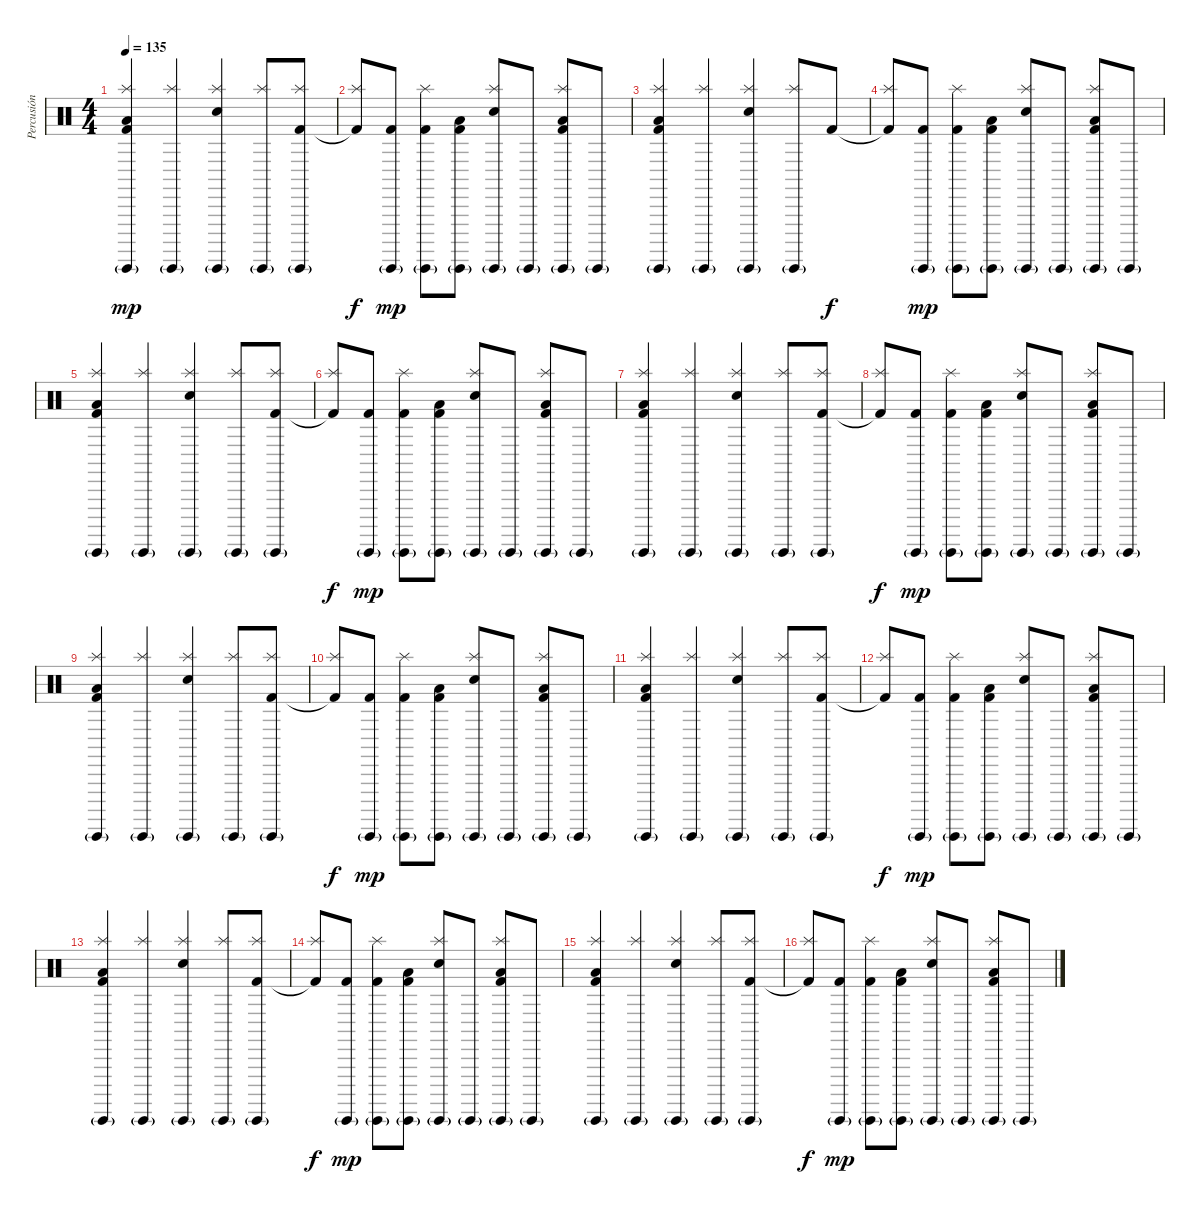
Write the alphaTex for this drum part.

\track ("Percusión" "Percusión") {instrument percussion}
\staff {score}
\articulation defaults
\ts (4 4)
\tempo 135
\clef neutral
\ks c
("Kick (hit) 2" "Guiro (hit)"{g} "Splash (hit)" "Low Floor Tom (hit)").4{dy mp volume 11} ("Splash (hit)" "Guiro (hit)"{g}).4 ("Snare (hit) 2" "Splash (hit)" "Guiro (hit)"{g}).4 ("Splash (hit)" "Guiro (hit)"{g}).8 ("Kick (hit) 2" "Splash (hit)" "Guiro (hit)"{g}).8 |
("Kick (hit) 2"{t} "Splash (hit)").8{dy f} ("Kick (hit) 2" "Guiro (hit)"{g}).8{dy mp} ("Kick (hit) 2" "Guiro (hit)"{g} "Splash (hit)").8 ("Kick (hit) 2" "Guiro (hit)"{g} "Low Floor Tom (hit)").8 ("Snare (hit) 2" "Guiro (hit)"{g} "Splash (hit)").8 "Guiro (hit)"{g}.8 ("Kick (hit) 2" "Guiro (hit)"{g} "Splash (hit)" "Low Floor Tom (hit)").8 "Guiro (hit)"{g}.8 |
("Kick (hit) 2" "Guiro (hit)"{g} "Splash (hit)" "Low Floor Tom (hit)").4 ("Splash (hit)" "Guiro (hit)"{g}).4 ("Snare (hit) 2" "Splash (hit)" "Guiro (hit)"{g}).4 ("Splash (hit)" "Guiro (hit)"{g}).8 "Kick (hit) 2".8{dy f} |
("Kick (hit) 2"{t} "Splash (hit)").8 ("Kick (hit) 2" "Guiro (hit)"{g}).8{dy mp} ("Kick (hit) 2" "Guiro (hit)"{g} "Splash (hit)").8 ("Kick (hit) 2" "Guiro (hit)"{g} "Low Floor Tom (hit)").8 ("Snare (hit) 2" "Guiro (hit)"{g} "Splash (hit)").8 "Guiro (hit)"{g}.8 ("Kick (hit) 2" "Guiro (hit)"{g} "Splash (hit)" "Low Floor Tom (hit)").8 "Guiro (hit)"{g}.8 |
("Kick (hit) 2" "Guiro (hit)"{g} "Splash (hit)" "Low Floor Tom (hit)").4 ("Splash (hit)" "Guiro (hit)"{g}).4 ("Snare (hit) 2" "Splash (hit)" "Guiro (hit)"{g}).4 ("Splash (hit)" "Guiro (hit)"{g}).8 ("Kick (hit) 2" "Splash (hit)" "Guiro (hit)"{g}).8 |
("Kick (hit) 2"{t} "Splash (hit)").8{dy f} ("Kick (hit) 2" "Guiro (hit)"{g}).8{dy mp} ("Kick (hit) 2" "Guiro (hit)"{g} "Splash (hit)").8 ("Kick (hit) 2" "Guiro (hit)"{g} "Low Floor Tom (hit)").8 ("Snare (hit) 2" "Guiro (hit)"{g} "Splash (hit)").8 "Guiro (hit)"{g}.8 ("Kick (hit) 2" "Guiro (hit)"{g} "Splash (hit)" "Low Floor Tom (hit)").8 "Guiro (hit)"{g}.8 |
("Kick (hit) 2" "Guiro (hit)"{g} "Splash (hit)" "Low Floor Tom (hit)").4 ("Splash (hit)" "Guiro (hit)"{g}).4 ("Snare (hit) 2" "Splash (hit)" "Guiro (hit)"{g}).4 ("Splash (hit)" "Guiro (hit)"{g}).8 ("Kick (hit) 2" "Splash (hit)" "Guiro (hit)"{g}).8 |
("Kick (hit) 2"{t} "Splash (hit)").8{dy f} ("Kick (hit) 2" "Guiro (hit)"{g}).8{dy mp} ("Kick (hit) 2" "Guiro (hit)"{g} "Splash (hit)").8 ("Kick (hit) 2" "Guiro (hit)"{g} "Low Floor Tom (hit)").8 ("Snare (hit) 2" "Guiro (hit)"{g} "Splash (hit)").8 "Guiro (hit)"{g}.8 ("Kick (hit) 2" "Guiro (hit)"{g} "Splash (hit)" "Low Floor Tom (hit)").8 "Guiro (hit)"{g}.8 |
("Kick (hit) 2" "Guiro (hit)"{g} "Splash (hit)" "Low Floor Tom (hit)").4 ("Splash (hit)" "Guiro (hit)"{g}).4 ("Snare (hit) 2" "Splash (hit)" "Guiro (hit)"{g}).4 ("Splash (hit)" "Guiro (hit)"{g}).8 ("Kick (hit) 2" "Splash (hit)" "Guiro (hit)"{g}).8 |
("Kick (hit) 2"{t} "Splash (hit)").8{dy f} ("Kick (hit) 2" "Guiro (hit)"{g}).8{dy mp} ("Kick (hit) 2" "Guiro (hit)"{g} "Splash (hit)").8 ("Kick (hit) 2" "Guiro (hit)"{g} "Low Floor Tom (hit)").8 ("Snare (hit) 2" "Guiro (hit)"{g} "Splash (hit)").8 "Guiro (hit)"{g}.8 ("Kick (hit) 2" "Guiro (hit)"{g} "Splash (hit)" "Low Floor Tom (hit)").8 "Guiro (hit)"{g}.8 |
("Kick (hit) 2" "Guiro (hit)"{g} "Splash (hit)" "Low Floor Tom (hit)").4 ("Splash (hit)" "Guiro (hit)"{g}).4 ("Snare (hit) 2" "Splash (hit)" "Guiro (hit)"{g}).4 ("Splash (hit)" "Guiro (hit)"{g}).8 ("Kick (hit) 2" "Splash (hit)" "Guiro (hit)"{g}).8 |
("Kick (hit) 2"{t} "Splash (hit)").8{dy f} ("Kick (hit) 2" "Guiro (hit)"{g}).8{dy mp} ("Kick (hit) 2" "Guiro (hit)"{g} "Splash (hit)").8 ("Kick (hit) 2" "Guiro (hit)"{g} "Low Floor Tom (hit)").8 ("Snare (hit) 2" "Guiro (hit)"{g} "Splash (hit)").8 "Guiro (hit)"{g}.8 ("Kick (hit) 2" "Guiro (hit)"{g} "Splash (hit)" "Low Floor Tom (hit)").8 "Guiro (hit)"{g}.8 |
("Kick (hit) 2" "Guiro (hit)"{g} "Splash (hit)" "Low Floor Tom (hit)").4 ("Splash (hit)" "Guiro (hit)"{g}).4 ("Snare (hit) 2" "Splash (hit)" "Guiro (hit)"{g}).4 ("Splash (hit)" "Guiro (hit)"{g}).8 ("Kick (hit) 2" "Splash (hit)" "Guiro (hit)"{g}).8 |
("Kick (hit) 2"{t} "Splash (hit)").8{dy f} ("Kick (hit) 2" "Guiro (hit)"{g}).8{dy mp} ("Kick (hit) 2" "Guiro (hit)"{g} "Splash (hit)").8 ("Kick (hit) 2" "Guiro (hit)"{g} "Low Floor Tom (hit)").8 ("Snare (hit) 2" "Guiro (hit)"{g} "Splash (hit)").8 "Guiro (hit)"{g}.8 ("Kick (hit) 2" "Guiro (hit)"{g} "Splash (hit)" "Low Floor Tom (hit)").8 "Guiro (hit)"{g}.8 |
("Kick (hit) 2" "Guiro (hit)"{g} "Splash (hit)" "Low Floor Tom (hit)").4 ("Splash (hit)" "Guiro (hit)"{g}).4 ("Snare (hit) 2" "Splash (hit)" "Guiro (hit)"{g}).4 ("Splash (hit)" "Guiro (hit)"{g}).8 ("Kick (hit) 2" "Splash (hit)" "Guiro (hit)"{g}).8 |
("Kick (hit) 2"{t} "Splash (hit)").8{dy f} ("Kick (hit) 2" "Guiro (hit)"{g}).8{dy mp} ("Kick (hit) 2" "Guiro (hit)"{g} "Splash (hit)").8 ("Kick (hit) 2" "Guiro (hit)"{g} "Low Floor Tom (hit)").8 ("Snare (hit) 2" "Guiro (hit)"{g} "Splash (hit)").8 "Guiro (hit)"{g}.8 ("Kick (hit) 2" "Guiro (hit)"{g} "Splash (hit)" "Low Floor Tom (hit)").8 "Guiro (hit)"{g}.8
